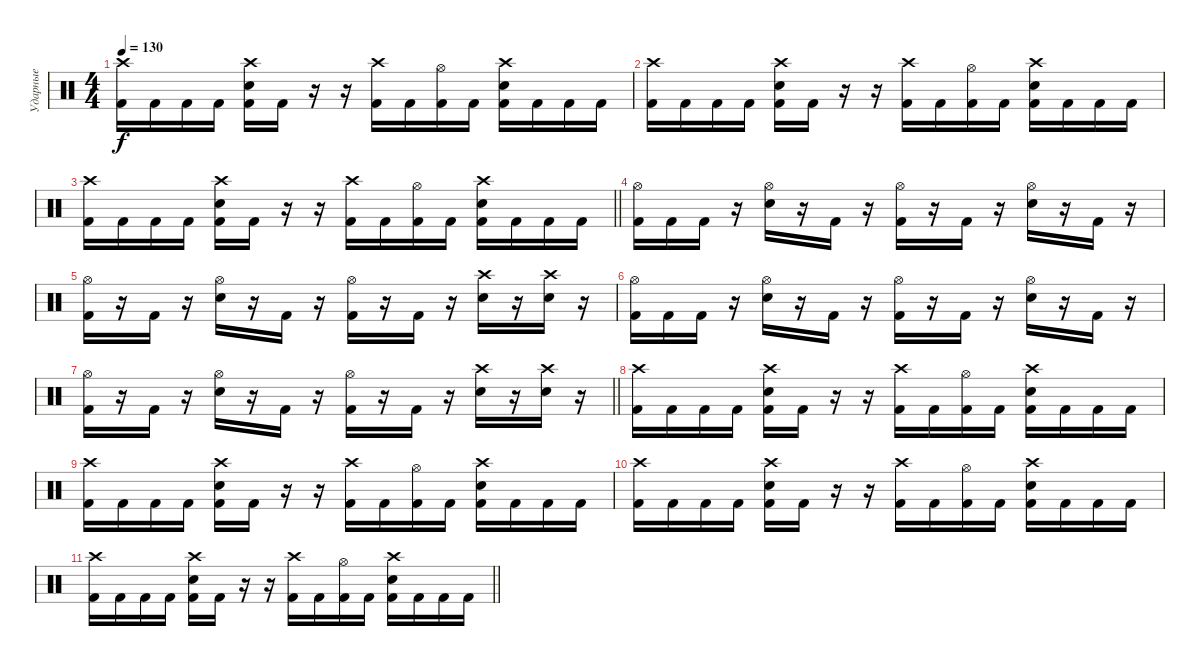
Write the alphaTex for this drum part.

\track ("Ударные" "Ударные") {instrument percussion}
\staff {score}
\articulation defaults
\ts (4 4)
\tempo 130
\clef neutral
\ks c
("Crash high (hit)" "Kick (hit) 2").16{dy f} "Kick (hit) 2".16 "Kick (hit) 2".16 "Kick (hit) 2".16 ("Crash high (hit)" "Electric Snare (hit)" "Kick (hit) 2").16 "Kick (hit) 2".16 r.16 r.16 ("Crash high (hit)" "Kick (hit) 2").16 "Kick (hit) 2".16 ("Hi-Hat (open)" "Kick (hit) 2").16 "Kick (hit) 2".16 ("Crash high (hit)" "Electric Snare (hit)" "Kick (hit) 2").16 "Kick (hit) 2".16 "Kick (hit) 2".16 "Kick (hit) 2".16 |
("Crash high (hit)" "Kick (hit) 2").16 "Kick (hit) 2".16 "Kick (hit) 2".16 "Kick (hit) 2".16 ("Crash high (hit)" "Electric Snare (hit)" "Kick (hit) 2").16 "Kick (hit) 2".16 r.16 r.16 ("Crash high (hit)" "Kick (hit) 2").16 "Kick (hit) 2".16 ("Hi-Hat (open)" "Kick (hit) 2").16 "Kick (hit) 2".16 ("Crash high (hit)" "Electric Snare (hit)" "Kick (hit) 2").16 "Kick (hit) 2".16 "Kick (hit) 2".16 "Kick (hit) 2".16 |
\barLineRight lightlight
("Crash high (hit)" "Kick (hit) 2").16 "Kick (hit) 2".16 "Kick (hit) 2".16 "Kick (hit) 2".16 ("Crash high (hit)" "Electric Snare (hit)" "Kick (hit) 2").16 "Kick (hit) 2".16 r.16 r.16 ("Crash high (hit)" "Kick (hit) 2").16 "Kick (hit) 2".16 ("Hi-Hat (open)" "Kick (hit) 2").16 "Kick (hit) 2".16 ("Crash high (hit)" "Electric Snare (hit)" "Kick (hit) 2").16 "Kick (hit) 2".16 "Kick (hit) 2".16 "Kick (hit) 2".16 |
("Hi-Hat (open)" "Kick (hit) 2").16 "Kick (hit) 2".16 "Kick (hit) 2".16 r.16 ("Hi-Hat (open)" "Electric Snare (hit)").16 r.16 "Kick (hit) 2".16 r.16 ("Hi-Hat (open)" "Kick (hit) 2").16 r.16 "Kick (hit) 2".16 r.16 ("Hi-Hat (open)" "Electric Snare (hit)").16 r.16 "Kick (hit) 2".16 r.16 |
("Hi-Hat (open)" "Kick (hit) 2").16 r.16 "Kick (hit) 2".16 r.16 ("Hi-Hat (open)" "Electric Snare (hit)").16 r.16 "Kick (hit) 2".16 r.16 ("Hi-Hat (open)" "Kick (hit) 2").16 r.16 "Kick (hit) 2".16 r.16 ("Crash high (hit)" "Electric Snare (hit)").16 r.16 ("Crash high (hit)" "Electric Snare (hit)").16 r.16 |
("Hi-Hat (open)" "Kick (hit) 2").16 "Kick (hit) 2".16 "Kick (hit) 2".16 r.16 ("Hi-Hat (open)" "Electric Snare (hit)").16 r.16 "Kick (hit) 2".16 r.16 ("Hi-Hat (open)" "Kick (hit) 2").16 r.16 "Kick (hit) 2".16 r.16 ("Hi-Hat (open)" "Electric Snare (hit)").16 r.16 "Kick (hit) 2".16 r.16 |
\barLineRight lightlight
("Hi-Hat (open)" "Kick (hit) 2").16 r.16 "Kick (hit) 2".16 r.16 ("Hi-Hat (open)" "Electric Snare (hit)").16 r.16 "Kick (hit) 2".16 r.16 ("Hi-Hat (open)" "Kick (hit) 2").16 r.16 "Kick (hit) 2".16 r.16 ("Crash high (hit)" "Electric Snare (hit)").16 r.16 ("Crash high (hit)" "Electric Snare (hit)").16 r.16 |
("Crash high (hit)" "Kick (hit) 2").16 "Kick (hit) 2".16 "Kick (hit) 2".16 "Kick (hit) 2".16 ("Crash high (hit)" "Electric Snare (hit)" "Kick (hit) 2").16 "Kick (hit) 2".16 r.16 r.16 ("Crash high (hit)" "Kick (hit) 2").16 "Kick (hit) 2".16 ("Hi-Hat (open)" "Kick (hit) 2").16 "Kick (hit) 2".16 ("Crash high (hit)" "Electric Snare (hit)" "Kick (hit) 2").16 "Kick (hit) 2".16 "Kick (hit) 2".16 "Kick (hit) 2".16 |
("Crash high (hit)" "Kick (hit) 2").16 "Kick (hit) 2".16 "Kick (hit) 2".16 "Kick (hit) 2".16 ("Crash high (hit)" "Electric Snare (hit)" "Kick (hit) 2").16 "Kick (hit) 2".16 r.16 r.16 ("Crash high (hit)" "Kick (hit) 2").16 "Kick (hit) 2".16 ("Hi-Hat (open)" "Kick (hit) 2").16 "Kick (hit) 2".16 ("Crash high (hit)" "Electric Snare (hit)" "Kick (hit) 2").16 "Kick (hit) 2".16 "Kick (hit) 2".16 "Kick (hit) 2".16 |
("Crash high (hit)" "Kick (hit) 2").16 "Kick (hit) 2".16 "Kick (hit) 2".16 "Kick (hit) 2".16 ("Crash high (hit)" "Electric Snare (hit)" "Kick (hit) 2").16 "Kick (hit) 2".16 r.16 r.16 ("Crash high (hit)" "Kick (hit) 2").16 "Kick (hit) 2".16 ("Hi-Hat (open)" "Kick (hit) 2").16 "Kick (hit) 2".16 ("Crash high (hit)" "Electric Snare (hit)" "Kick (hit) 2").16 "Kick (hit) 2".16 "Kick (hit) 2".16 "Kick (hit) 2".16 |
\barLineRight lightlight
("Crash high (hit)" "Kick (hit) 2").16 "Kick (hit) 2".16 "Kick (hit) 2".16 "Kick (hit) 2".16 ("Crash high (hit)" "Electric Snare (hit)" "Kick (hit) 2").16 "Kick (hit) 2".16 r.16 r.16 ("Crash high (hit)" "Kick (hit) 2").16 "Kick (hit) 2".16 ("Hi-Hat (open)" "Kick (hit) 2").16 "Kick (hit) 2".16 ("Crash high (hit)" "Electric Snare (hit)" "Kick (hit) 2").16 "Kick (hit) 2".16 "Kick (hit) 2".16 "Kick (hit) 2".16
